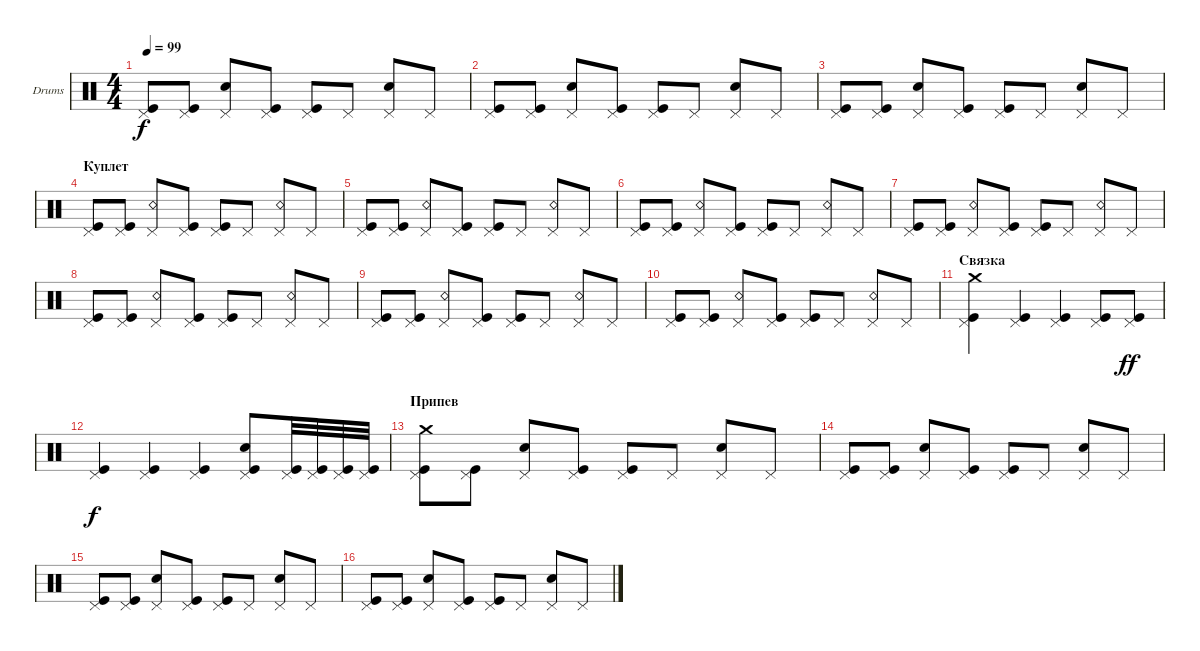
\defaultSystemsLayout 4
\bracketExtendMode groupsimilarinstruments
\firstSystemTrackNameOrientation horizontal
\otherSystemsTrackNameOrientation horizontal
\track ("Е. Кулаков" "Drums") {instrument percussion}
\staff {score}
\articulation defaults
\ts (4 4)
\tempo 99
\clef neutral
\ks c
("Pedal Hi-Hat (hit)" "Kick (hit)").8{dy f} ("Pedal Hi-Hat (hit)" "Kick (hit)").8 ("Snare (hit) 2" "Pedal Hi-Hat (hit)").8 ("Pedal Hi-Hat (hit)" "Kick (hit)").8 ("Pedal Hi-Hat (hit)" "Kick (hit)").8 "Pedal Hi-Hat (hit)".8 ("Snare (hit) 2" "Pedal Hi-Hat (hit)").8 "Pedal Hi-Hat (hit)".8 |
("Pedal Hi-Hat (hit)" "Kick (hit)").8 ("Pedal Hi-Hat (hit)" "Kick (hit)").8 ("Snare (hit) 2" "Pedal Hi-Hat (hit)").8 ("Pedal Hi-Hat (hit)" "Kick (hit)").8 ("Pedal Hi-Hat (hit)" "Kick (hit)").8 "Pedal Hi-Hat (hit)".8 ("Snare (hit) 2" "Pedal Hi-Hat (hit)").8 "Pedal Hi-Hat (hit)".8 |
("Pedal Hi-Hat (hit)" "Kick (hit)").8 ("Pedal Hi-Hat (hit)" "Kick (hit)").8 ("Snare (hit) 2" "Pedal Hi-Hat (hit)").8 ("Pedal Hi-Hat (hit)" "Kick (hit)").8 ("Pedal Hi-Hat (hit)" "Kick (hit)").8 "Pedal Hi-Hat (hit)".8 ("Snare (hit) 2" "Pedal Hi-Hat (hit)").8 "Pedal Hi-Hat (hit)".8 |
\section ("" "Куплет")
("Pedal Hi-Hat (hit)" "Kick (hit)").8 ("Pedal Hi-Hat (hit)" "Kick (hit)").8 ("Snare (rim shot)" "Pedal Hi-Hat (hit)").8 ("Pedal Hi-Hat (hit)" "Kick (hit)").8 ("Pedal Hi-Hat (hit)" "Kick (hit)").8 "Pedal Hi-Hat (hit)".8 ("Snare (rim shot)" "Pedal Hi-Hat (hit)").8 "Pedal Hi-Hat (hit)".8 |
("Pedal Hi-Hat (hit)" "Kick (hit)").8 ("Pedal Hi-Hat (hit)" "Kick (hit)").8 ("Snare (rim shot)" "Pedal Hi-Hat (hit)").8 ("Pedal Hi-Hat (hit)" "Kick (hit)").8 ("Pedal Hi-Hat (hit)" "Kick (hit)").8 "Pedal Hi-Hat (hit)".8 ("Snare (rim shot)" "Pedal Hi-Hat (hit)").8 "Pedal Hi-Hat (hit)".8 |
("Pedal Hi-Hat (hit)" "Kick (hit)").8 ("Pedal Hi-Hat (hit)" "Kick (hit)").8 ("Snare (rim shot)" "Pedal Hi-Hat (hit)").8 ("Pedal Hi-Hat (hit)" "Kick (hit)").8 ("Pedal Hi-Hat (hit)" "Kick (hit)").8 "Pedal Hi-Hat (hit)".8 ("Snare (rim shot)" "Pedal Hi-Hat (hit)").8 "Pedal Hi-Hat (hit)".8 |
("Pedal Hi-Hat (hit)" "Kick (hit)").8 ("Pedal Hi-Hat (hit)" "Kick (hit)").8 ("Snare (rim shot)" "Pedal Hi-Hat (hit)").8 ("Pedal Hi-Hat (hit)" "Kick (hit)").8 ("Pedal Hi-Hat (hit)" "Kick (hit)").8 "Pedal Hi-Hat (hit)".8 ("Snare (rim shot)" "Pedal Hi-Hat (hit)").8 "Pedal Hi-Hat (hit)".8 |
("Pedal Hi-Hat (hit)" "Kick (hit)").8 ("Pedal Hi-Hat (hit)" "Kick (hit)").8 ("Snare (rim shot)" "Pedal Hi-Hat (hit)").8 ("Pedal Hi-Hat (hit)" "Kick (hit)").8 ("Pedal Hi-Hat (hit)" "Kick (hit)").8 "Pedal Hi-Hat (hit)".8 ("Snare (rim shot)" "Pedal Hi-Hat (hit)").8 "Pedal Hi-Hat (hit)".8 |
("Pedal Hi-Hat (hit)" "Kick (hit)").8 ("Pedal Hi-Hat (hit)" "Kick (hit)").8 ("Snare (rim shot)" "Pedal Hi-Hat (hit)").8 ("Pedal Hi-Hat (hit)" "Kick (hit)").8 ("Pedal Hi-Hat (hit)" "Kick (hit)").8 "Pedal Hi-Hat (hit)".8 ("Snare (rim shot)" "Pedal Hi-Hat (hit)").8 "Pedal Hi-Hat (hit)".8 |
("Pedal Hi-Hat (hit)" "Kick (hit)").8 ("Pedal Hi-Hat (hit)" "Kick (hit)").8 ("Snare (rim shot)" "Pedal Hi-Hat (hit)").8 ("Pedal Hi-Hat (hit)" "Kick (hit)").8 ("Pedal Hi-Hat (hit)" "Kick (hit)").8 "Pedal Hi-Hat (hit)".8 ("Snare (rim shot)" "Pedal Hi-Hat (hit)").8 "Pedal Hi-Hat (hit)".8 |
\section ("" "Связка")
("Pedal Hi-Hat (hit)" "Kick (hit)" "Crash medium (hit)").4 ("Pedal Hi-Hat (hit)" "Kick (hit)").4 ("Pedal Hi-Hat (hit)" "Kick (hit)").4 ("Pedal Hi-Hat (hit)" "Kick (hit)").8 ("Pedal Hi-Hat (hit)" "Kick (hit)").8{dy ff} |
("Pedal Hi-Hat (hit)" "Kick (hit)").4{dy f} ("Pedal Hi-Hat (hit)" "Kick (hit)").4 ("Pedal Hi-Hat (hit)" "Kick (hit)").4 ("Pedal Hi-Hat (hit)" "Kick (hit)" "Snare (hit) 2").8 ("Pedal Hi-Hat (hit)" "Kick (hit)").32 ("Pedal Hi-Hat (hit)" "Kick (hit)").32 ("Pedal Hi-Hat (hit)" "Kick (hit)").32 ("Pedal Hi-Hat (hit)" "Kick (hit)").32 |
\section ("" "Припев")
("Pedal Hi-Hat (hit)" "Kick (hit)" "Crash medium (hit)").8 ("Pedal Hi-Hat (hit)" "Kick (hit)").8 ("Snare (hit) 2" "Pedal Hi-Hat (hit)").8 ("Pedal Hi-Hat (hit)" "Kick (hit)").8 ("Pedal Hi-Hat (hit)" "Kick (hit)").8 "Pedal Hi-Hat (hit)".8 ("Snare (hit) 2" "Pedal Hi-Hat (hit)").8 "Pedal Hi-Hat (hit)".8 |
("Pedal Hi-Hat (hit)" "Kick (hit)").8 ("Pedal Hi-Hat (hit)" "Kick (hit)").8 ("Snare (hit) 2" "Pedal Hi-Hat (hit)").8 ("Pedal Hi-Hat (hit)" "Kick (hit)").8 ("Pedal Hi-Hat (hit)" "Kick (hit)").8 "Pedal Hi-Hat (hit)".8 ("Snare (hit) 2" "Pedal Hi-Hat (hit)").8 "Pedal Hi-Hat (hit)".8 |
("Pedal Hi-Hat (hit)" "Kick (hit)").8 ("Pedal Hi-Hat (hit)" "Kick (hit)").8 ("Snare (hit) 2" "Pedal Hi-Hat (hit)").8 ("Pedal Hi-Hat (hit)" "Kick (hit)").8 ("Pedal Hi-Hat (hit)" "Kick (hit)").8 "Pedal Hi-Hat (hit)".8 ("Snare (hit) 2" "Pedal Hi-Hat (hit)").8 "Pedal Hi-Hat (hit)".8 |
("Pedal Hi-Hat (hit)" "Kick (hit)").8 ("Pedal Hi-Hat (hit)" "Kick (hit)").8 ("Snare (hit) 2" "Pedal Hi-Hat (hit)").8 ("Pedal Hi-Hat (hit)" "Kick (hit)").8 ("Pedal Hi-Hat (hit)" "Kick (hit)").8 "Pedal Hi-Hat (hit)".8 ("Snare (hit) 2" "Pedal Hi-Hat (hit)").8 "Pedal Hi-Hat (hit)".8
